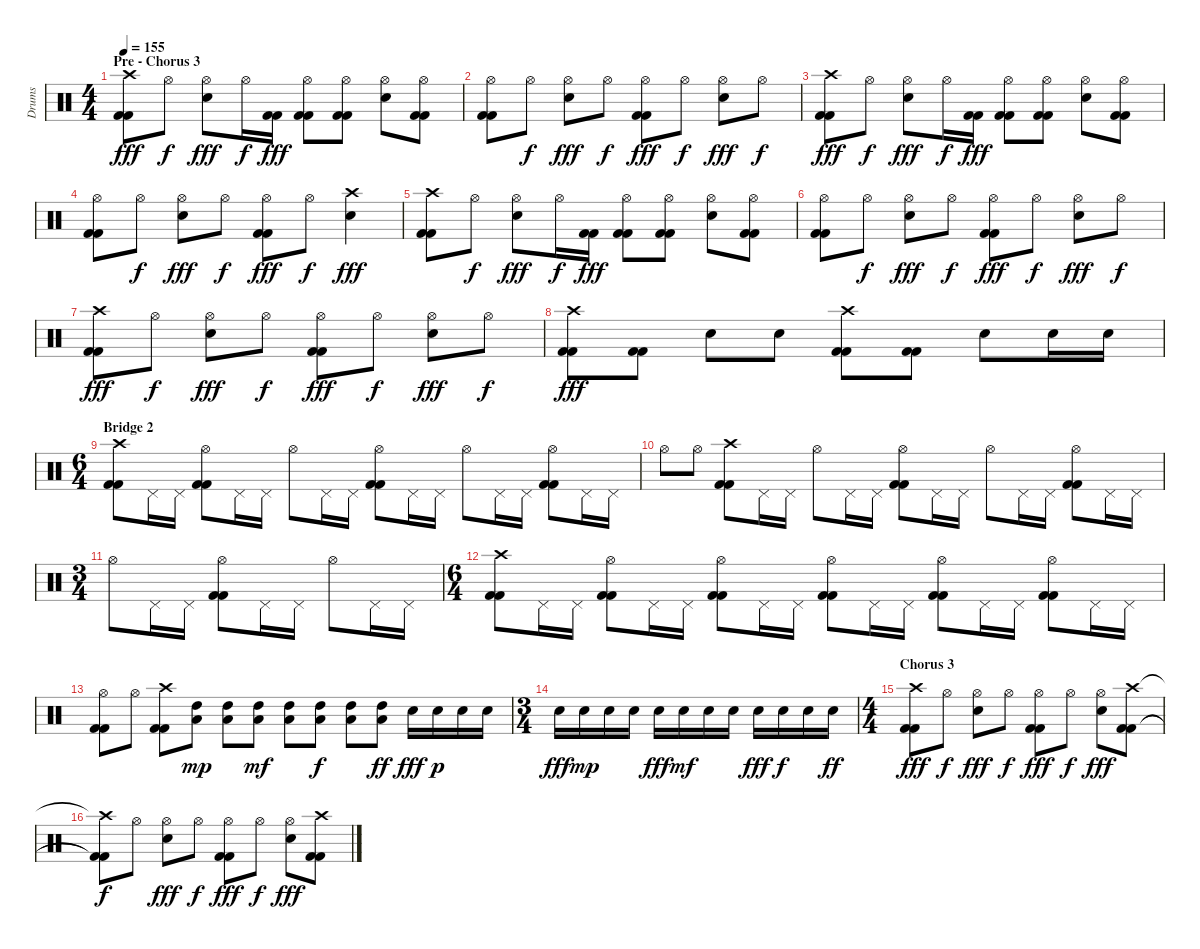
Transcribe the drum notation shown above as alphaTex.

\track ("Drums" "Drums") {instrument percussion}
\staff {score}
\articulation defaults
\ts (4 4)
\section ("" "Pre - Chorus 3")
\tempo 155
\clef neutral
\ks c
("Crash high (hit)" "Kick (hit) 2" "Kick (hit) 2").8{dy fff} "Hi-Hat (open)".8{dy f} ("Hi-Hat (open)" "Snare (hit) 2").8{dy fff} "Hi-Hat (open)".16{dy f} ("Kick (hit) 2" "Kick (hit) 2").16{dy fff} ("Hi-Hat (open)" "Kick (hit) 2" "Kick (hit) 2").8 ("Hi-Hat (open)" "Kick (hit) 2" "Kick (hit) 2").8 ("Hi-Hat (open)" "Snare (hit) 2").8 ("Hi-Hat (open)" "Kick (hit) 2" "Kick (hit) 2").8 |
("Hi-Hat (open)" "Kick (hit) 2" "Kick (hit) 2").8 "Hi-Hat (open)".8{dy f} ("Hi-Hat (open)" "Snare (hit) 2").8{dy fff} "Hi-Hat (open)".8{dy f} ("Hi-Hat (open)" "Kick (hit) 2" "Kick (hit) 2").8{dy fff} "Hi-Hat (open)".8{dy f} ("Hi-Hat (open)" "Snare (hit) 2").8{dy fff} "Hi-Hat (open)".8{dy f} |
("Crash high (hit)" "Kick (hit) 2" "Kick (hit) 2").8{dy fff} "Hi-Hat (open)".8{dy f} ("Hi-Hat (open)" "Snare (hit) 2").8{dy fff} "Hi-Hat (open)".16{dy f} ("Kick (hit) 2" "Kick (hit) 2").16{dy fff} ("Hi-Hat (open)" "Kick (hit) 2" "Kick (hit) 2").8 ("Hi-Hat (open)" "Kick (hit) 2" "Kick (hit) 2").8 ("Hi-Hat (open)" "Snare (hit) 2").8 ("Hi-Hat (open)" "Kick (hit) 2" "Kick (hit) 2").8 |
("Hi-Hat (open)" "Kick (hit) 2" "Kick (hit) 2").8 "Hi-Hat (open)".8{dy f} ("Hi-Hat (open)" "Snare (hit) 2").8{dy fff} "Hi-Hat (open)".8{dy f} ("Hi-Hat (open)" "Kick (hit) 2" "Kick (hit) 2").8{dy fff} "Hi-Hat (open)".8{dy f} ("Crash high (hit)" "Snare (hit) 2").4{dy fff} |
("Crash high (hit)" "Kick (hit) 2" "Kick (hit) 2").8 "Hi-Hat (open)".8{dy f} ("Hi-Hat (open)" "Snare (hit) 2").8{dy fff} "Hi-Hat (open)".16{dy f} ("Kick (hit) 2" "Kick (hit) 2").16{dy fff} ("Hi-Hat (open)" "Kick (hit) 2" "Kick (hit) 2").8 ("Hi-Hat (open)" "Kick (hit) 2" "Kick (hit) 2").8 ("Hi-Hat (open)" "Snare (hit) 2").8 ("Hi-Hat (open)" "Kick (hit) 2" "Kick (hit) 2").8 |
("Hi-Hat (open)" "Kick (hit) 2" "Kick (hit) 2").8 "Hi-Hat (open)".8{dy f} ("Hi-Hat (open)" "Snare (hit) 2").8{dy fff} "Hi-Hat (open)".8{dy f} ("Hi-Hat (open)" "Kick (hit) 2" "Kick (hit) 2").8{dy fff} "Hi-Hat (open)".8{dy f} ("Hi-Hat (open)" "Snare (hit) 2").8{dy fff} "Hi-Hat (open)".8{dy f} |
("Crash high (hit)" "Kick (hit) 2" "Kick (hit) 2").8{dy fff} "Hi-Hat (open)".8{dy f} ("Hi-Hat (open)" "Snare (hit) 2").8{dy fff} "Hi-Hat (open)".8{dy f} ("Hi-Hat (open)" "Kick (hit) 2" "Kick (hit) 2").8{dy fff} "Hi-Hat (open)".8{dy f} ("Hi-Hat (open)" "Snare (hit) 2").8{dy fff} "Hi-Hat (open)".8{dy f} |
("Crash high (hit)" "Kick (hit) 2" "Kick (hit) 2").8{dy fff} ("Kick (hit) 2" "Kick (hit) 2").8 "Snare (hit) 2".8 "Snare (hit) 2".8 ("Crash high (hit)" "Kick (hit) 2" "Kick (hit) 2").8 ("Kick (hit) 2" "Kick (hit) 2").8 "Snare (hit) 2".8 "Snare (hit) 2".16 "Snare (hit) 2".16 |
\ts (6 4)
\section ("" "Bridge 2")
("Crash high (hit)" "Kick (hit) 2" "Kick (hit) 2").8 "Pedal Hi-Hat (hit)".16 "Pedal Hi-Hat (hit)".16 ("Hi-Hat (open)" "Kick (hit) 2" "Kick (hit) 2").8 "Pedal Hi-Hat (hit)".16 "Pedal Hi-Hat (hit)".16 "Hi-Hat (open)".8 "Pedal Hi-Hat (hit)".16 "Pedal Hi-Hat (hit)".16 ("Hi-Hat (open)" "Kick (hit) 2" "Kick (hit) 2").8 "Pedal Hi-Hat (hit)".16 "Pedal Hi-Hat (hit)".16 "Hi-Hat (open)".8 "Pedal Hi-Hat (hit)".16 "Pedal Hi-Hat (hit)".16 ("Hi-Hat (open)" "Kick (hit) 2" "Kick (hit) 2").8 "Pedal Hi-Hat (hit)".16 "Pedal Hi-Hat (hit)".16 |
"Hi-Hat (open)".8 "Hi-Hat (open)".8 ("Crash high (hit)" "Kick (hit) 2" "Kick (hit) 2").8 "Pedal Hi-Hat (hit)".16 "Pedal Hi-Hat (hit)".16 "Hi-Hat (open)".8 "Pedal Hi-Hat (hit)".16 "Pedal Hi-Hat (hit)".16 ("Hi-Hat (open)" "Kick (hit) 2" "Kick (hit) 2").8 "Pedal Hi-Hat (hit)".16 "Pedal Hi-Hat (hit)".16 "Hi-Hat (open)".8 "Pedal Hi-Hat (hit)".16 "Pedal Hi-Hat (hit)".16 ("Hi-Hat (open)" "Kick (hit) 2" "Kick (hit) 2").8 "Pedal Hi-Hat (hit)".16 "Pedal Hi-Hat (hit)".16 |
\ts (3 4)
"Hi-Hat (open)".8 "Pedal Hi-Hat (hit)".16 "Pedal Hi-Hat (hit)".16 ("Hi-Hat (open)" "Kick (hit) 2" "Kick (hit) 2").8 "Pedal Hi-Hat (hit)".16 "Pedal Hi-Hat (hit)".16 "Hi-Hat (open)".8 "Pedal Hi-Hat (hit)".16 "Pedal Hi-Hat (hit)".16 |
\ts (6 4)
("Crash high (hit)" "Kick (hit) 2" "Kick (hit) 2").8 "Pedal Hi-Hat (hit)".16 "Pedal Hi-Hat (hit)".16 ("Hi-Hat (open)" "Kick (hit) 2" "Kick (hit) 2").8 "Pedal Hi-Hat (hit)".16 "Pedal Hi-Hat (hit)".16 ("Hi-Hat (open)" "Kick (hit) 2" "Kick (hit) 2").8 "Pedal Hi-Hat (hit)".16 "Pedal Hi-Hat (hit)".16 ("Hi-Hat (open)" "Kick (hit) 2" "Kick (hit) 2").8 "Pedal Hi-Hat (hit)".16 "Pedal Hi-Hat (hit)".16 ("Hi-Hat (open)" "Kick (hit) 2" "Kick (hit) 2").8 "Pedal Hi-Hat (hit)".16 "Pedal Hi-Hat (hit)".16 ("Hi-Hat (open)" "Kick (hit) 2" "Kick (hit) 2").8 "Pedal Hi-Hat (hit)".16 "Pedal Hi-Hat (hit)".16 |
("Hi-Hat (open)" "Kick (hit) 2" "Kick (hit) 2").8 "Hi-Hat (open)".8 ("Crash high (hit)" "Kick (hit) 2" "Kick (hit) 2").8 ("High Tom (hit)" "Low Tom (hit)").8{dy mp} ("High Tom (hit)" "Low Tom (hit)").8 ("High Tom (hit)" "Low Tom (hit)").8{dy mf} ("High Tom (hit)" "Low Tom (hit)").8 ("High Tom (hit)" "Low Tom (hit)").8{dy f} ("High Tom (hit)" "Low Tom (hit)").8 ("High Tom (hit)" "Low Tom (hit)").8{dy ff} "Snare (hit) 2".16{dy fff} "Snare (hit) 2".16{dy p} "Snare (hit) 2".16 "Snare (hit) 2".16 |
\ts (3 4)
"Snare (hit) 2".16{dy fff} "Snare (hit) 2".16{dy mp} "Snare (hit) 2".16 "Snare (hit) 2".16 "Snare (hit) 2".16{dy fff} "Snare (hit) 2".16{dy mf} "Snare (hit) 2".16 "Snare (hit) 2".16 "Snare (hit) 2".16{dy fff} "Snare (hit) 2".16{dy f} "Snare (hit) 2".16 "Snare (hit) 2".16{dy ff} |
\ts (4 4)
\section ("" "Chorus 3")
("Crash high (hit)" "Kick (hit) 2" "Kick (hit) 2").8{dy fff} "Hi-Hat (open)".8{dy f} ("Hi-Hat (open)" "Snare (hit) 2").8{dy fff} "Hi-Hat (open)".8{dy f} ("Hi-Hat (open)" "Kick (hit) 2" "Kick (hit) 2").8{dy fff} "Hi-Hat (open)".8{dy f} ("Hi-Hat (open)" "Snare (hit) 2").8{dy fff} ("Crash high (hit)" "Kick (hit) 2" "Kick (hit) 2").8 |
("Crash high (hit)"{t} "Kick (hit) 2"{t} "Kick (hit) 2"{t}).8{dy f} "Hi-Hat (open)".8 ("Hi-Hat (open)" "Snare (hit) 2").8{dy fff} "Hi-Hat (open)".8{dy f} ("Hi-Hat (open)" "Kick (hit) 2" "Kick (hit) 2").8{dy fff} "Hi-Hat (open)".8{dy f} ("Hi-Hat (open)" "Snare (hit) 2").8{dy fff} ("Crash high (hit)" "Kick (hit) 2" "Kick (hit) 2").8
